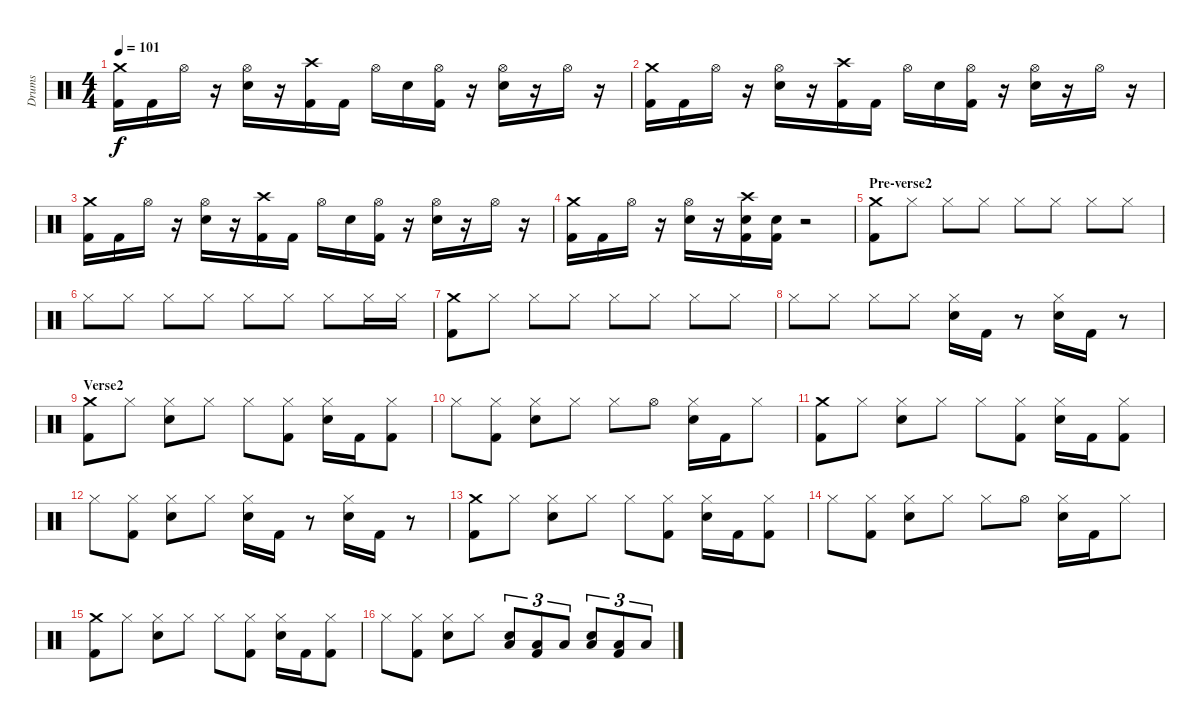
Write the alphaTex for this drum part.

\track ("Drums" "Drums") {instrument percussion}
\staff {score}
\articulation defaults
\ts (4 4)
\tempo 101
\clef neutral
\ks c
("Crash medium (hit)" "Kick (hit) 2").16{dy f} "Kick (hit) 2".16 "Hi-Hat (open)".16 r.16 ("Hi-Hat (open)" "Electric Snare (hit)").16 r.16 ("Crash high (hit)" "Kick (hit) 2").16 "Kick (hit) 2".16 "Hi-Hat (open)".16 "Electric Snare (hit)".16 ("Hi-Hat (open)" "Kick (hit) 2").16 r.16 ("Hi-Hat (open)" "Electric Snare (hit)").16 r.16 "Hi-Hat (open)".16 r.16 |
("Crash medium (hit)" "Kick (hit) 2").16 "Kick (hit) 2".16 "Hi-Hat (open)".16 r.16 ("Hi-Hat (open)" "Electric Snare (hit)").16 r.16 ("Crash high (hit)" "Kick (hit) 2").16 "Kick (hit) 2".16 "Hi-Hat (open)".16 "Electric Snare (hit)".16 ("Hi-Hat (open)" "Kick (hit) 2").16 r.16 ("Hi-Hat (open)" "Electric Snare (hit)").16 r.16 "Hi-Hat (open)".16 r.16 |
("Crash medium (hit)" "Kick (hit) 2").16 "Kick (hit) 2".16 "Hi-Hat (open)".16 r.16 ("Hi-Hat (open)" "Electric Snare (hit)").16 r.16 ("Crash high (hit)" "Kick (hit) 2").16 "Kick (hit) 2".16 "Hi-Hat (open)".16 "Electric Snare (hit)".16 ("Hi-Hat (open)" "Kick (hit) 2").16 r.16 ("Hi-Hat (open)" "Electric Snare (hit)").16 r.16 "Hi-Hat (open)".16 r.16 |
("Crash medium (hit)" "Kick (hit) 2").16 "Kick (hit) 2".16 "Hi-Hat (open)".16 r.16 ("Hi-Hat (open)" "Electric Snare (hit)").16 r.16 ("Crash high (hit)" "Electric Snare (hit)" "Kick (hit) 2").16 ("Electric Snare (hit)" "Kick (hit) 2").16 r.2 |
\section ("" "Pre-verse2")
("Crash medium (hit)" "Kick (hit) 2").8 "Hi-Hat (closed)".8 "Hi-Hat (closed)".8 "Hi-Hat (closed)".8 "Hi-Hat (closed)".8 "Hi-Hat (closed)".8 "Hi-Hat (closed)".8 "Hi-Hat (closed)".8 |
"Hi-Hat (closed)".8 "Hi-Hat (closed)".8 "Hi-Hat (closed)".8 "Hi-Hat (closed)".8 "Hi-Hat (closed)".8 "Hi-Hat (closed)".8 "Hi-Hat (closed)".8 "Hi-Hat (closed)".16 "Hi-Hat (closed)".16 |
("Crash medium (hit)" "Kick (hit) 2").8 "Hi-Hat (closed)".8 "Hi-Hat (closed)".8 "Hi-Hat (closed)".8 "Hi-Hat (closed)".8 "Hi-Hat (closed)".8 "Hi-Hat (closed)".8 "Hi-Hat (closed)".8 |
"Hi-Hat (closed)".8 "Hi-Hat (closed)".8 "Hi-Hat (closed)".8 "Hi-Hat (closed)".8 ("Hi-Hat (closed)" "Electric Snare (hit)").16 "Kick (hit) 2".16 r.8 ("Hi-Hat (closed)" "Electric Snare (hit)").16 "Kick (hit) 2".16 r.8 |
\section ("" "Verse2")
("Crash medium (hit)" "Kick (hit) 2").8 "Hi-Hat (closed)".8 ("Hi-Hat (closed)" "Electric Snare (hit)").8 "Hi-Hat (closed)".8 "Hi-Hat (closed)".8 ("Hi-Hat (closed)" "Kick (hit) 2").8 ("Hi-Hat (closed)" "Electric Snare (hit)").16 "Kick (hit) 2".16 ("Hi-Hat (closed)" "Kick (hit) 2").8 |
"Hi-Hat (closed)".8 ("Hi-Hat (closed)" "Kick (hit) 2").8 ("Hi-Hat (closed)" "Electric Snare (hit)").8 "Hi-Hat (closed)".8 "Hi-Hat (closed)".8 "Hi-Hat (open)".8 ("Hi-Hat (closed)" "Electric Snare (hit)").16 "Kick (hit) 2".16 "Hi-Hat (closed)".8 |
("Crash medium (hit)" "Kick (hit) 2").8 "Hi-Hat (closed)".8 ("Hi-Hat (closed)" "Electric Snare (hit)").8 "Hi-Hat (closed)".8 "Hi-Hat (closed)".8 ("Hi-Hat (closed)" "Kick (hit) 2").8 ("Hi-Hat (closed)" "Electric Snare (hit)").16 "Kick (hit) 2".16 ("Hi-Hat (closed)" "Kick (hit) 2").8 |
"Hi-Hat (closed)".8 ("Hi-Hat (closed)" "Kick (hit) 2").8 ("Hi-Hat (closed)" "Electric Snare (hit)").8 "Hi-Hat (closed)".8 ("Hi-Hat (closed)" "Electric Snare (hit)").16 "Kick (hit) 2".16 r.8 ("Hi-Hat (closed)" "Electric Snare (hit)").16 "Kick (hit) 2".16 r.8 |
("Crash medium (hit)" "Kick (hit) 2").8 "Hi-Hat (closed)".8 ("Hi-Hat (closed)" "Electric Snare (hit)").8 "Hi-Hat (closed)".8 "Hi-Hat (closed)".8 ("Hi-Hat (closed)" "Kick (hit) 2").8 ("Hi-Hat (closed)" "Electric Snare (hit)").16 "Kick (hit) 2".16 ("Hi-Hat (closed)" "Kick (hit) 2").8 |
"Hi-Hat (closed)".8 ("Hi-Hat (closed)" "Kick (hit) 2").8 ("Hi-Hat (closed)" "Electric Snare (hit)").8 "Hi-Hat (closed)".8 "Hi-Hat (closed)".8 "Hi-Hat (open)".8 ("Hi-Hat (closed)" "Electric Snare (hit)").16 "Kick (hit) 2".16 "Hi-Hat (closed)".8 |
("Crash medium (hit)" "Kick (hit) 2").8 "Hi-Hat (closed)".8 ("Hi-Hat (closed)" "Electric Snare (hit)").8 "Hi-Hat (closed)".8 "Hi-Hat (closed)".8 ("Hi-Hat (closed)" "Kick (hit) 2").8 ("Hi-Hat (closed)" "Electric Snare (hit)").16 "Kick (hit) 2".16 ("Hi-Hat (closed)" "Kick (hit) 2").8 |
"Hi-Hat (closed)".8 ("Hi-Hat (closed)" "Kick (hit) 2").8 ("Hi-Hat (closed)" "Electric Snare (hit)").8 "Hi-Hat (closed)".8 ("Low Tom (hit)" "Electric Snare (hit)").8{tu (3 2)} ("Low Tom (hit)" "Kick (hit) 2").8{tu (3 2)} "Low Tom (hit)".8{tu (3 2)} ("Low Tom (hit)" "Electric Snare (hit)").8{tu (3 2)} ("Low Tom (hit)" "Kick (hit) 2").8{tu (3 2)} "Low Tom (hit)".8{tu (3 2)}
